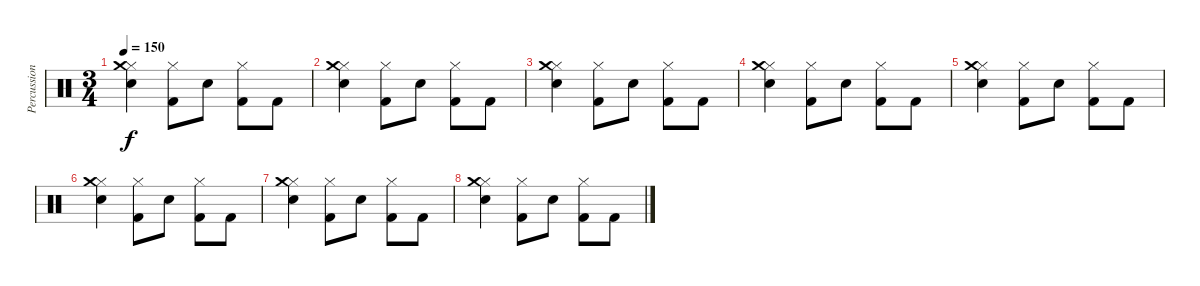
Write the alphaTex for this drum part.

\track ("Percussions" "Percussion") {instrument percussion}
\staff {score}
\articulation defaults
\ts (3 4)
\tempo 150
\clef neutral
\ks c
("Hi-Hat (closed)" "Snare (hit) 2" "Crash medium (hit)").4{dy f} ("Hi-Hat (closed)" "Kick (hit) 2").8 "Snare (hit) 2".8 ("Hi-Hat (closed)" "Kick (hit) 2").8 "Kick (hit) 2".8 |
("Hi-Hat (closed)" "Snare (hit) 2" "Crash medium (hit)").4 ("Hi-Hat (closed)" "Kick (hit) 2").8 "Snare (hit) 2".8 ("Hi-Hat (closed)" "Kick (hit) 2").8 "Kick (hit) 2".8 |
("Hi-Hat (closed)" "Snare (hit) 2" "Crash medium (hit)").4 ("Hi-Hat (closed)" "Kick (hit) 2").8 "Snare (hit) 2".8 ("Hi-Hat (closed)" "Kick (hit) 2").8 "Kick (hit) 2".8 |
("Hi-Hat (closed)" "Snare (hit) 2" "Crash medium (hit)").4 ("Hi-Hat (closed)" "Kick (hit) 2").8 "Snare (hit) 2".8 ("Hi-Hat (closed)" "Kick (hit) 2").8 "Kick (hit) 2".8 |
("Hi-Hat (closed)" "Snare (hit) 2" "Crash medium (hit)").4 ("Hi-Hat (closed)" "Kick (hit) 2").8 "Snare (hit) 2".8 ("Hi-Hat (closed)" "Kick (hit) 2").8 "Kick (hit) 2".8 |
("Hi-Hat (closed)" "Snare (hit) 2" "Crash medium (hit)").4 ("Hi-Hat (closed)" "Kick (hit) 2").8 "Snare (hit) 2".8 ("Hi-Hat (closed)" "Kick (hit) 2").8 "Kick (hit) 2".8 |
("Hi-Hat (closed)" "Snare (hit) 2" "Crash medium (hit)").4 ("Hi-Hat (closed)" "Kick (hit) 2").8 "Snare (hit) 2".8 ("Hi-Hat (closed)" "Kick (hit) 2").8 "Kick (hit) 2".8 |
("Hi-Hat (closed)" "Snare (hit) 2" "Crash medium (hit)").4 ("Hi-Hat (closed)" "Kick (hit) 2").8 "Snare (hit) 2".8 ("Hi-Hat (closed)" "Kick (hit) 2").8 "Kick (hit) 2".8
